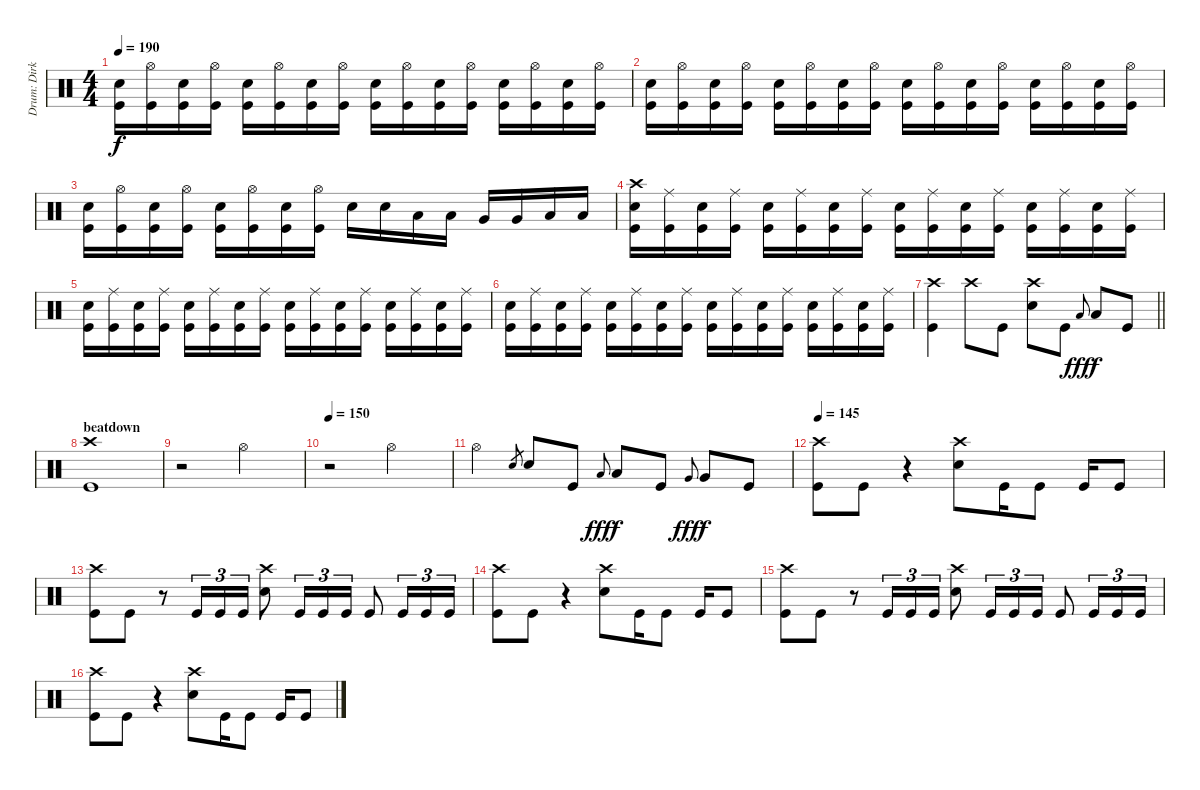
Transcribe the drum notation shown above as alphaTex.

\track ("Drum: Dirk" "Drum: Dirk") {instrument percussion}
\staff {score}
\articulation defaults
\ts (4 4)
\tempo 190
\clef neutral
\ks c
("Electric Snare (hit)" "Kick (hit)").16{dy f} ("Hi-Hat (open)" "Kick (hit)").16 ("Electric Snare (hit)" "Kick (hit)").16 ("Hi-Hat (open)" "Kick (hit)").16 ("Electric Snare (hit)" "Kick (hit)").16 ("Hi-Hat (open)" "Kick (hit)").16 ("Electric Snare (hit)" "Kick (hit)").16 ("Hi-Hat (open)" "Kick (hit)").16 ("Electric Snare (hit)" "Kick (hit)").16 ("Hi-Hat (open)" "Kick (hit)").16 ("Electric Snare (hit)" "Kick (hit)").16 ("Hi-Hat (open)" "Kick (hit)").16 ("Electric Snare (hit)" "Kick (hit)").16 ("Hi-Hat (open)" "Kick (hit)").16 ("Electric Snare (hit)" "Kick (hit)").16 ("Hi-Hat (open)" "Kick (hit)").16 |
("Electric Snare (hit)" "Kick (hit)").16 ("Hi-Hat (open)" "Kick (hit)").16 ("Electric Snare (hit)" "Kick (hit)").16 ("Hi-Hat (open)" "Kick (hit)").16 ("Electric Snare (hit)" "Kick (hit)").16 ("Hi-Hat (open)" "Kick (hit)").16 ("Electric Snare (hit)" "Kick (hit)").16 ("Hi-Hat (open)" "Kick (hit)").16 ("Electric Snare (hit)" "Kick (hit)").16 ("Hi-Hat (open)" "Kick (hit)").16 ("Electric Snare (hit)" "Kick (hit)").16 ("Hi-Hat (open)" "Kick (hit)").16 ("Electric Snare (hit)" "Kick (hit)").16 ("Hi-Hat (open)" "Kick (hit)").16 ("Electric Snare (hit)" "Kick (hit)").16 ("Hi-Hat (open)" "Kick (hit)").16 |
("Electric Snare (hit)" "Kick (hit)").16 ("Hi-Hat (open)" "Kick (hit)").16 ("Electric Snare (hit)" "Kick (hit)").16 ("Hi-Hat (open)" "Kick (hit)").16 ("Electric Snare (hit)" "Kick (hit)").16 ("Hi-Hat (open)" "Kick (hit)").16 ("Electric Snare (hit)" "Kick (hit)").16 ("Hi-Hat (open)" "Kick (hit)").16 "Electric Snare (hit)".16 "Electric Snare (hit)".16 "Low Tom (hit)".16 "Low Tom (hit)".16 "Very Low Tom (hit)".16 "Very Low Tom (hit)".16 "Low Floor Tom (hit)".16 "Low Floor Tom (hit)".16 |
("Crash high (hit)" "Electric Snare (hit)" "Kick (hit)").16 ("Ride (middle)" "Kick (hit)").16 ("Electric Snare (hit)" "Kick (hit)").16 ("Ride (middle)" "Kick (hit)").16 ("Electric Snare (hit)" "Kick (hit)").16 ("Ride (middle)" "Kick (hit)").16 ("Electric Snare (hit)" "Kick (hit)").16 ("Ride (middle)" "Kick (hit)").16 ("Electric Snare (hit)" "Kick (hit)").16 ("Ride (middle)" "Kick (hit)").16 ("Electric Snare (hit)" "Kick (hit)").16 ("Ride (middle)" "Kick (hit)").16 ("Electric Snare (hit)" "Kick (hit)").16 ("Ride (middle)" "Kick (hit)").16 ("Electric Snare (hit)" "Kick (hit)").16 ("Ride (middle)" "Kick (hit)").16 |
("Electric Snare (hit)" "Kick (hit)").16 ("Ride (middle)" "Kick (hit)").16 ("Electric Snare (hit)" "Kick (hit)").16 ("Ride (middle)" "Kick (hit)").16 ("Electric Snare (hit)" "Kick (hit)").16 ("Ride (middle)" "Kick (hit)").16 ("Electric Snare (hit)" "Kick (hit)").16 ("Ride (middle)" "Kick (hit)").16 ("Electric Snare (hit)" "Kick (hit)").16 ("Ride (middle)" "Kick (hit)").16 ("Electric Snare (hit)" "Kick (hit)").16 ("Ride (middle)" "Kick (hit)").16 ("Electric Snare (hit)" "Kick (hit)").16 ("Ride (middle)" "Kick (hit)").16 ("Electric Snare (hit)" "Kick (hit)").16 ("Ride (middle)" "Kick (hit)").16 |
("Electric Snare (hit)" "Kick (hit)").16 ("Ride (middle)" "Kick (hit)").16 ("Electric Snare (hit)" "Kick (hit)").16 ("Ride (middle)" "Kick (hit)").16 ("Electric Snare (hit)" "Kick (hit)").16 ("Ride (middle)" "Kick (hit)").16 ("Electric Snare (hit)" "Kick (hit)").16 ("Ride (middle)" "Kick (hit)").16 ("Electric Snare (hit)" "Kick (hit)").16 ("Ride (middle)" "Kick (hit)").16 ("Electric Snare (hit)" "Kick (hit)").16 ("Ride (middle)" "Kick (hit)").16 ("Electric Snare (hit)" "Kick (hit)").16 ("Ride (middle)" "Kick (hit)").16 ("Electric Snare (hit)" "Kick (hit)").16 ("Ride (middle)" "Kick (hit)").16 |
\barLineRight lightlight
("Crash high (hit)" "Kick (hit)").4 "Crash high (hit)".8 "Kick (hit)".8 ("Crash high (hit)" "Electric Snare (hit)").8 "Kick (hit)".8 "Low Tom (hit)".8{gr onbeat dy fff} "Low Tom (hit)".8{dy f} "Kick (hit)".8 |
\section ("" "beatdown")
("Crash high (hit)" "Kick (hit)").1 |
r.2 "Hi-Hat (open)".2 |
\tempo 150
r.2 "Hi-Hat (open)".2 |
"Hi-Hat (open)".4 "Electric Snare (hit)".8{gr} "Electric Snare (hit)".8 "Kick (hit)".8 "Low Tom (hit)".8{gr onbeat dy fff} "Low Tom (hit)".8{dy f} "Kick (hit)".8 "Very Low Tom (hit)".8{gr onbeat dy fff} "Very Low Tom (hit)".8{dy f} "Kick (hit)".8 |
\tempo 145
("Crash high (hit)" "Kick (hit)").8 "Kick (hit)".8 r.4 ("Crash high (hit)" "Electric Snare (hit)").8 "Kick (hit)".16 "Kick (hit)".8 "Kick (hit)".16 "Kick (hit)".8 |
("Crash high (hit)" "Kick (hit)").8 "Kick (hit)".8 r.8 "Kick (hit)".16{tu (3 2)} "Kick (hit)".16{tu (3 2)} "Kick (hit)".16{tu (3 2)} ("Crash high (hit)" "Electric Snare (hit)").8 "Kick (hit)".16{tu (3 2)} "Kick (hit)".16{tu (3 2)} "Kick (hit)".16{tu (3 2)} "Kick (hit)".8 "Kick (hit)".16{tu (3 2)} "Kick (hit)".16{tu (3 2)} "Kick (hit)".16{tu (3 2)} |
("Crash high (hit)" "Kick (hit)").8 "Kick (hit)".8 r.4 ("Crash high (hit)" "Electric Snare (hit)").8 "Kick (hit)".16 "Kick (hit)".8 "Kick (hit)".16 "Kick (hit)".8 |
("Crash high (hit)" "Kick (hit)").8 "Kick (hit)".8 r.8 "Kick (hit)".16{tu (3 2)} "Kick (hit)".16{tu (3 2)} "Kick (hit)".16{tu (3 2)} ("Crash high (hit)" "Electric Snare (hit)").8 "Kick (hit)".16{tu (3 2)} "Kick (hit)".16{tu (3 2)} "Kick (hit)".16{tu (3 2)} "Kick (hit)".8 "Kick (hit)".16{tu (3 2)} "Kick (hit)".16{tu (3 2)} "Kick (hit)".16{tu (3 2)} |
("Crash high (hit)" "Kick (hit)").8 "Kick (hit)".8 r.4 ("Crash high (hit)" "Electric Snare (hit)").8 "Kick (hit)".16 "Kick (hit)".8 "Kick (hit)".16 "Kick (hit)".8
